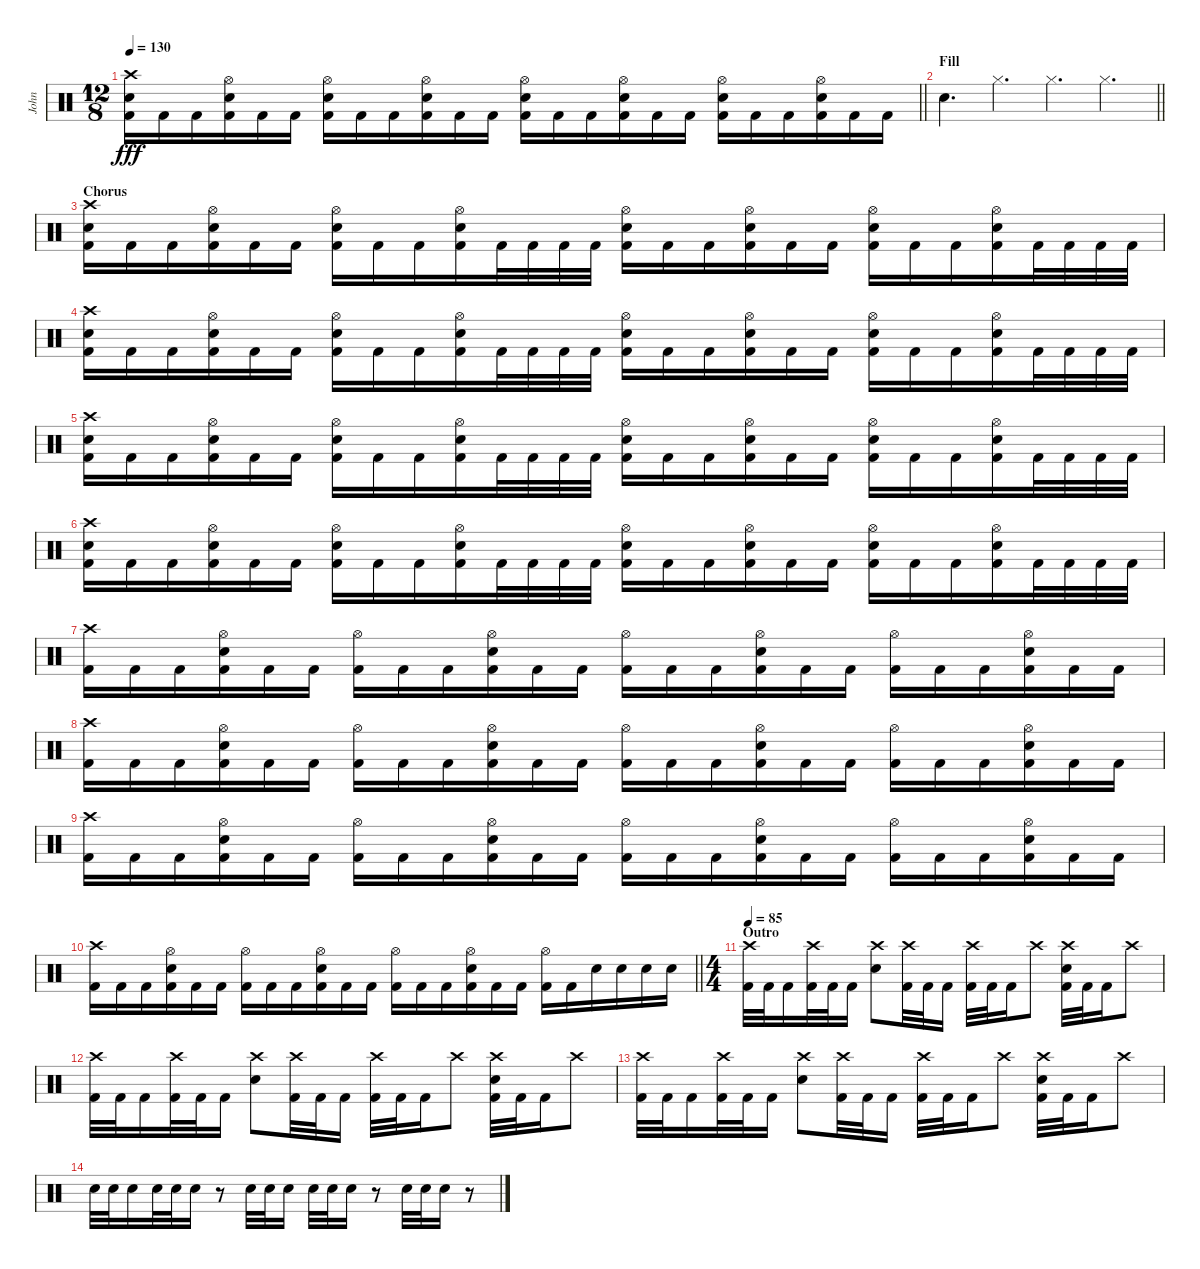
\track ("John" "John") {instrument percussion}
\staff {score}
\articulation defaults
\ts (12 8)
\tempo 130
\clef neutral
\barLineRight lightlight
\ks c
("Crash high (hit)" "Electric Snare (hit)" "Kick (hit) 2").16{dy fff} "Kick (hit) 2".16 "Kick (hit) 2".16 ("Hi-Hat (open)" "Electric Snare (hit)" "Kick (hit) 2").16 "Kick (hit) 2".16 "Kick (hit) 2".16 ("Hi-Hat (open)" "Electric Snare (hit)" "Kick (hit) 2").16 "Kick (hit) 2".16 "Kick (hit) 2".16 ("Hi-Hat (open)" "Electric Snare (hit)" "Kick (hit) 2").16 "Kick (hit) 2".16 "Kick (hit) 2".16 ("Hi-Hat (open)" "Electric Snare (hit)" "Kick (hit) 2").16 "Kick (hit) 2".16 "Kick (hit) 2".16 ("Hi-Hat (open)" "Electric Snare (hit)" "Kick (hit) 2").16 "Kick (hit) 2".16 "Kick (hit) 2".16 ("Hi-Hat (open)" "Electric Snare (hit)" "Kick (hit) 2").16 "Kick (hit) 2".16 "Kick (hit) 2".16 ("Hi-Hat (open)" "Electric Snare (hit)" "Kick (hit) 2").16 "Kick (hit) 2".16 "Kick (hit) 2".16 |
\section ("" "Fill")
\barLineRight lightlight "Electric Snare (hit)".4{d} "Hi-Hat (closed)".4{d} "Hi-Hat (closed)".4{d} "Hi-Hat (closed)".4{d}
|
\section ("" "Chorus")
("Crash high (hit)" "Electric Snare (hit)" "Kick (hit) 2").16 "Kick (hit) 2".16 "Kick (hit) 2".16 ("Hi-Hat (open)" "Electric Snare (hit)" "Kick (hit) 2").16 "Kick (hit) 2".16 "Kick (hit) 2".16 ("Hi-Hat (open)" "Electric Snare (hit)" "Kick (hit) 2").16 "Kick (hit) 2".16 "Kick (hit) 2".16 ("Hi-Hat (open)" "Electric Snare (hit)" "Kick (hit) 2").16 "Kick (hit) 2".32 "Kick (hit) 2".32 "Kick (hit) 2".32 "Kick (hit) 2".32 ("Hi-Hat (open)" "Electric Snare (hit)" "Kick (hit) 2").16 "Kick (hit) 2".16 "Kick (hit) 2".16 ("Hi-Hat (open)" "Electric Snare (hit)" "Kick (hit) 2").16 "Kick (hit) 2".16 "Kick (hit) 2".16 ("Hi-Hat (open)" "Electric Snare (hit)" "Kick (hit) 2").16 "Kick (hit) 2".16 "Kick (hit) 2".16 ("Hi-Hat (open)" "Electric Snare (hit)" "Kick (hit) 2").16 "Kick (hit) 2".32 "Kick (hit) 2".32 "Kick (hit) 2".32 "Kick (hit) 2".32 |
("Crash high (hit)" "Electric Snare (hit)" "Kick (hit) 2").16 "Kick (hit) 2".16 "Kick (hit) 2".16 ("Hi-Hat (open)" "Electric Snare (hit)" "Kick (hit) 2").16 "Kick (hit) 2".16 "Kick (hit) 2".16 ("Hi-Hat (open)" "Electric Snare (hit)" "Kick (hit) 2").16 "Kick (hit) 2".16 "Kick (hit) 2".16 ("Hi-Hat (open)" "Electric Snare (hit)" "Kick (hit) 2").16 "Kick (hit) 2".32 "Kick (hit) 2".32 "Kick (hit) 2".32 "Kick (hit) 2".32 ("Hi-Hat (open)" "Electric Snare (hit)" "Kick (hit) 2").16 "Kick (hit) 2".16 "Kick (hit) 2".16 ("Hi-Hat (open)" "Electric Snare (hit)" "Kick (hit) 2").16 "Kick (hit) 2".16 "Kick (hit) 2".16 ("Hi-Hat (open)" "Electric Snare (hit)" "Kick (hit) 2").16 "Kick (hit) 2".16 "Kick (hit) 2".16 ("Hi-Hat (open)" "Electric Snare (hit)" "Kick (hit) 2").16 "Kick (hit) 2".32 "Kick (hit) 2".32 "Kick (hit) 2".32 "Kick (hit) 2".32 |
("Crash high (hit)" "Electric Snare (hit)" "Kick (hit) 2").16 "Kick (hit) 2".16 "Kick (hit) 2".16 ("Hi-Hat (open)" "Electric Snare (hit)" "Kick (hit) 2").16 "Kick (hit) 2".16 "Kick (hit) 2".16 ("Hi-Hat (open)" "Electric Snare (hit)" "Kick (hit) 2").16 "Kick (hit) 2".16 "Kick (hit) 2".16 ("Hi-Hat (open)" "Electric Snare (hit)" "Kick (hit) 2").16 "Kick (hit) 2".32 "Kick (hit) 2".32 "Kick (hit) 2".32 "Kick (hit) 2".32 ("Hi-Hat (open)" "Electric Snare (hit)" "Kick (hit) 2").16 "Kick (hit) 2".16 "Kick (hit) 2".16 ("Hi-Hat (open)" "Electric Snare (hit)" "Kick (hit) 2").16 "Kick (hit) 2".16 "Kick (hit) 2".16 ("Hi-Hat (open)" "Electric Snare (hit)" "Kick (hit) 2").16 "Kick (hit) 2".16 "Kick (hit) 2".16 ("Hi-Hat (open)" "Electric Snare (hit)" "Kick (hit) 2").16 "Kick (hit) 2".32 "Kick (hit) 2".32 "Kick (hit) 2".32 "Kick (hit) 2".32 |
("Crash high (hit)" "Electric Snare (hit)" "Kick (hit) 2").16 "Kick (hit) 2".16 "Kick (hit) 2".16 ("Hi-Hat (open)" "Electric Snare (hit)" "Kick (hit) 2").16 "Kick (hit) 2".16 "Kick (hit) 2".16 ("Hi-Hat (open)" "Electric Snare (hit)" "Kick (hit) 2").16 "Kick (hit) 2".16 "Kick (hit) 2".16 ("Hi-Hat (open)" "Electric Snare (hit)" "Kick (hit) 2").16 "Kick (hit) 2".32 "Kick (hit) 2".32 "Kick (hit) 2".32 "Kick (hit) 2".32 ("Hi-Hat (open)" "Electric Snare (hit)" "Kick (hit) 2").16 "Kick (hit) 2".16 "Kick (hit) 2".16 ("Hi-Hat (open)" "Electric Snare (hit)" "Kick (hit) 2").16 "Kick (hit) 2".16 "Kick (hit) 2".16 ("Hi-Hat (open)" "Electric Snare (hit)" "Kick (hit) 2").16 "Kick (hit) 2".16 "Kick (hit) 2".16 ("Hi-Hat (open)" "Electric Snare (hit)" "Kick (hit) 2").16 "Kick (hit) 2".32 "Kick (hit) 2".32 "Kick (hit) 2".32 "Kick (hit) 2".32 |
("Crash high (hit)" "Kick (hit) 2").16 "Kick (hit) 2".16 "Kick (hit) 2".16 ("Hi-Hat (open)" "Electric Snare (hit)" "Kick (hit) 2").16 "Kick (hit) 2".16 "Kick (hit) 2".16 ("Hi-Hat (open)" "Kick (hit) 2").16 "Kick (hit) 2".16 "Kick (hit) 2".16 ("Hi-Hat (open)" "Electric Snare (hit)" "Kick (hit) 2").16 "Kick (hit) 2".16 "Kick (hit) 2".16 ("Hi-Hat (open)" "Kick (hit) 2").16 "Kick (hit) 2".16 "Kick (hit) 2".16 ("Hi-Hat (open)" "Electric Snare (hit)" "Kick (hit) 2").16 "Kick (hit) 2".16 "Kick (hit) 2".16 ("Hi-Hat (open)" "Kick (hit) 2").16 "Kick (hit) 2".16 "Kick (hit) 2".16 ("Hi-Hat (open)" "Electric Snare (hit)" "Kick (hit) 2").16 "Kick (hit) 2".16 "Kick (hit) 2".16 |
("Crash high (hit)" "Kick (hit) 2").16 "Kick (hit) 2".16 "Kick (hit) 2".16 ("Hi-Hat (open)" "Electric Snare (hit)" "Kick (hit) 2").16 "Kick (hit) 2".16 "Kick (hit) 2".16 ("Hi-Hat (open)" "Kick (hit) 2").16 "Kick (hit) 2".16 "Kick (hit) 2".16 ("Hi-Hat (open)" "Electric Snare (hit)" "Kick (hit) 2").16 "Kick (hit) 2".16 "Kick (hit) 2".16 ("Hi-Hat (open)" "Kick (hit) 2").16 "Kick (hit) 2".16 "Kick (hit) 2".16 ("Hi-Hat (open)" "Electric Snare (hit)" "Kick (hit) 2").16 "Kick (hit) 2".16 "Kick (hit) 2".16 ("Hi-Hat (open)" "Kick (hit) 2").16 "Kick (hit) 2".16 "Kick (hit) 2".16 ("Hi-Hat (open)" "Electric Snare (hit)" "Kick (hit) 2").16 "Kick (hit) 2".16 "Kick (hit) 2".16 |
("Crash high (hit)" "Kick (hit) 2").16 "Kick (hit) 2".16 "Kick (hit) 2".16 ("Hi-Hat (open)" "Electric Snare (hit)" "Kick (hit) 2").16 "Kick (hit) 2".16 "Kick (hit) 2".16 ("Hi-Hat (open)" "Kick (hit) 2").16 "Kick (hit) 2".16 "Kick (hit) 2".16 ("Hi-Hat (open)" "Electric Snare (hit)" "Kick (hit) 2").16 "Kick (hit) 2".16 "Kick (hit) 2".16 ("Hi-Hat (open)" "Kick (hit) 2").16 "Kick (hit) 2".16 "Kick (hit) 2".16 ("Hi-Hat (open)" "Electric Snare (hit)" "Kick (hit) 2").16 "Kick (hit) 2".16 "Kick (hit) 2".16 ("Hi-Hat (open)" "Kick (hit) 2").16 "Kick (hit) 2".16 "Kick (hit) 2".16 ("Hi-Hat (open)" "Electric Snare (hit)" "Kick (hit) 2").16 "Kick (hit) 2".16 "Kick (hit) 2".16 |
\barLineRight lightlight
("Crash high (hit)" "Kick (hit) 2").16 "Kick (hit) 2".16 "Kick (hit) 2".16 ("Hi-Hat (open)" "Electric Snare (hit)" "Kick (hit) 2").16 "Kick (hit) 2".16 "Kick (hit) 2".16 ("Hi-Hat (open)" "Kick (hit) 2").16 "Kick (hit) 2".16 "Kick (hit) 2".16 ("Hi-Hat (open)" "Electric Snare (hit)" "Kick (hit) 2").16 "Kick (hit) 2".16 "Kick (hit) 2".16 ("Hi-Hat (open)" "Kick (hit) 2").16 "Kick (hit) 2".16 "Kick (hit) 2".16 ("Hi-Hat (open)" "Electric Snare (hit)" "Kick (hit) 2").16 "Kick (hit) 2".16 "Kick (hit) 2".16 ("Hi-Hat (open)" "Kick (hit) 2").16 "Kick (hit) 2".16 "Electric Snare (hit)".16 "Electric Snare (hit)".16 "Electric Snare (hit)".16 "Electric Snare (hit)".16 |
\ts (4 4)
\section ("" "Outro")
\tempo 85
("Crash high (hit)" "Kick (hit) 2").32 "Kick (hit) 2".32 "Kick (hit) 2".16 ("Crash high (hit)" "Kick (hit) 2").32 "Kick (hit) 2".32 "Kick (hit) 2".16 ("Crash high (hit)" "Electric Snare (hit)").8 ("Crash high (hit)" "Kick (hit) 2").32 "Kick (hit) 2".32 "Kick (hit) 2".16 ("Crash high (hit)" "Kick (hit) 2").32 "Kick (hit) 2".32 "Kick (hit) 2".16 "Crash high (hit)".8 ("Crash high (hit)" "Electric Snare (hit)" "Kick (hit) 2").32 "Kick (hit) 2".32 "Kick (hit) 2".16 "Crash high (hit)".8 |
("Crash high (hit)" "Kick (hit) 2").32 "Kick (hit) 2".32 "Kick (hit) 2".16 ("Crash high (hit)" "Kick (hit) 2").32 "Kick (hit) 2".32 "Kick (hit) 2".16 ("Crash high (hit)" "Electric Snare (hit)").8 ("Crash high (hit)" "Kick (hit) 2").32 "Kick (hit) 2".32 "Kick (hit) 2".16 ("Crash high (hit)" "Kick (hit) 2").32 "Kick (hit) 2".32 "Kick (hit) 2".16 "Crash high (hit)".8 ("Crash high (hit)" "Electric Snare (hit)" "Kick (hit) 2").32 "Kick (hit) 2".32 "Kick (hit) 2".16 "Crash high (hit)".8 |
("Crash high (hit)" "Kick (hit) 2").32 "Kick (hit) 2".32 "Kick (hit) 2".16 ("Crash high (hit)" "Kick (hit) 2").32 "Kick (hit) 2".32 "Kick (hit) 2".16 ("Crash high (hit)" "Electric Snare (hit)").8 ("Crash high (hit)" "Kick (hit) 2").32 "Kick (hit) 2".32 "Kick (hit) 2".16 ("Crash high (hit)" "Kick (hit) 2").32 "Kick (hit) 2".32 "Kick (hit) 2".16 "Crash high (hit)".8 ("Crash high (hit)" "Electric Snare (hit)" "Kick (hit) 2").32 "Kick (hit) 2".32 "Kick (hit) 2".16 "Crash high (hit)".8 |
"Electric Snare (hit)".32 "Electric Snare (hit)".32 "Electric Snare (hit)".16 "Electric Snare (hit)".32 "Electric Snare (hit)".32 "Electric Snare (hit)".16 r.8 "Electric Snare (hit)".32 "Electric Snare (hit)".32 "Electric Snare (hit)".16 "Electric Snare (hit)".32 "Electric Snare (hit)".32 "Electric Snare (hit)".16 r.8 "Electric Snare (hit)".32 "Electric Snare (hit)".32 "Electric Snare (hit)".16 r.8
